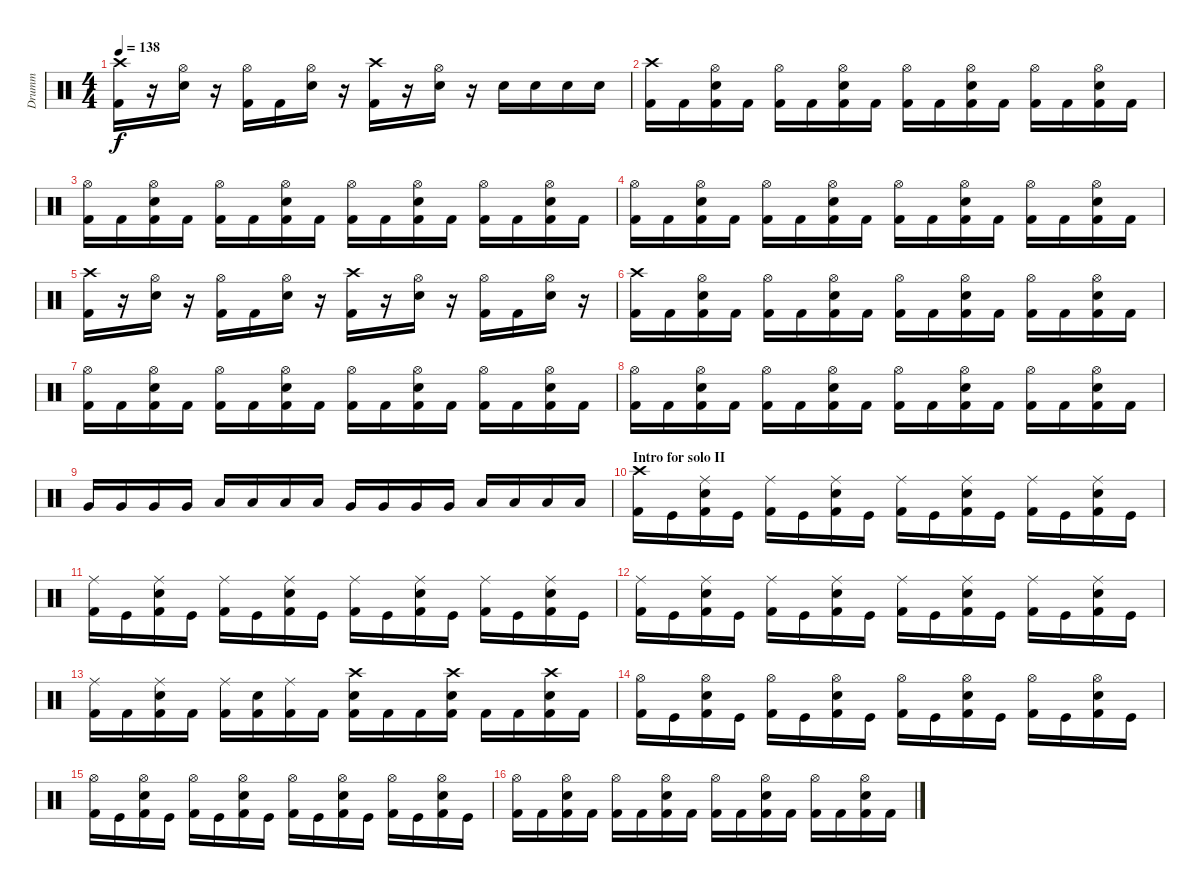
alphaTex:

\track ("Drumm" "Drumm") {instrument percussion}
\staff {score}
\articulation defaults
\ts (4 4)
\tempo 138
\clef neutral
\ks c
("Crash high (hit)" "Kick (hit) 2").16{dy f} r.16 ("Hi-Hat (open)" "Snare (hit) 2").16 r.16 ("Hi-Hat (open)" "Kick (hit) 2").16 "Kick (hit) 2".16 ("Hi-Hat (open)" "Snare (hit) 2").16 r.16 ("Crash high (hit)" "Kick (hit) 2").16 r.16 ("Hi-Hat (open)" "Snare (hit) 2").16 r.16 "Snare (hit) 2".16 "Snare (hit) 2".16 "Snare (hit) 2".16 "Snare (hit) 2".16 |
("Crash high (hit)" "Kick (hit) 2").16 "Kick (hit) 2".16 ("Hi-Hat (open)" "Snare (hit) 2" "Kick (hit) 2").16 "Kick (hit) 2".16 ("Hi-Hat (open)" "Kick (hit) 2").16 "Kick (hit) 2".16 ("Hi-Hat (open)" "Snare (hit) 2" "Kick (hit) 2").16 "Kick (hit) 2".16 ("Hi-Hat (open)" "Kick (hit) 2").16 "Kick (hit) 2".16 ("Hi-Hat (open)" "Snare (hit) 2" "Kick (hit) 2").16 "Kick (hit) 2".16 ("Hi-Hat (open)" "Kick (hit) 2").16 "Kick (hit) 2".16 ("Hi-Hat (open)" "Snare (hit) 2" "Kick (hit) 2").16 "Kick (hit) 2".16 |
("Hi-Hat (open)" "Kick (hit) 2").16 "Kick (hit) 2".16 ("Hi-Hat (open)" "Snare (hit) 2" "Kick (hit) 2").16 "Kick (hit) 2".16 ("Hi-Hat (open)" "Kick (hit) 2").16 "Kick (hit) 2".16 ("Hi-Hat (open)" "Snare (hit) 2" "Kick (hit) 2").16 "Kick (hit) 2".16 ("Hi-Hat (open)" "Kick (hit) 2").16 "Kick (hit) 2".16 ("Hi-Hat (open)" "Snare (hit) 2" "Kick (hit) 2").16 "Kick (hit) 2".16 ("Hi-Hat (open)" "Kick (hit) 2").16 "Kick (hit) 2".16 ("Hi-Hat (open)" "Snare (hit) 2" "Kick (hit) 2").16 "Kick (hit) 2".16 |
("Hi-Hat (open)" "Kick (hit) 2").16 "Kick (hit) 2".16 ("Hi-Hat (open)" "Snare (hit) 2" "Kick (hit) 2").16 "Kick (hit) 2".16 ("Hi-Hat (open)" "Kick (hit) 2").16 "Kick (hit) 2".16 ("Hi-Hat (open)" "Snare (hit) 2" "Kick (hit) 2").16 "Kick (hit) 2".16 ("Hi-Hat (open)" "Kick (hit) 2").16 "Kick (hit) 2".16 ("Hi-Hat (open)" "Snare (hit) 2" "Kick (hit) 2").16 "Kick (hit) 2".16 ("Hi-Hat (open)" "Kick (hit) 2").16 "Kick (hit) 2".16 ("Hi-Hat (open)" "Snare (hit) 2" "Kick (hit) 2").16 "Kick (hit) 2".16 |
("Crash high (hit)" "Kick (hit) 2").16 r.16 ("Hi-Hat (open)" "Snare (hit) 2").16 r.16 ("Hi-Hat (open)" "Kick (hit) 2").16 "Kick (hit) 2".16 ("Hi-Hat (open)" "Snare (hit) 2").16 r.16 ("Crash high (hit)" "Kick (hit) 2").16 r.16 ("Hi-Hat (open)" "Snare (hit) 2").16 r.16 ("Hi-Hat (open)" "Kick (hit) 2").16 "Kick (hit) 2".16 ("Hi-Hat (open)" "Snare (hit) 2").16 r.16 |
("Crash high (hit)" "Kick (hit) 2").16 "Kick (hit) 2".16 ("Hi-Hat (open)" "Snare (hit) 2" "Kick (hit) 2").16 "Kick (hit) 2".16 ("Hi-Hat (open)" "Kick (hit) 2").16 "Kick (hit) 2".16 ("Hi-Hat (open)" "Snare (hit) 2" "Kick (hit) 2").16 "Kick (hit) 2".16 ("Hi-Hat (open)" "Kick (hit) 2").16 "Kick (hit) 2".16 ("Hi-Hat (open)" "Snare (hit) 2" "Kick (hit) 2").16 "Kick (hit) 2".16 ("Hi-Hat (open)" "Kick (hit) 2").16 "Kick (hit) 2".16 ("Hi-Hat (open)" "Snare (hit) 2" "Kick (hit) 2").16 "Kick (hit) 2".16 |
("Hi-Hat (open)" "Kick (hit) 2").16 "Kick (hit) 2".16 ("Hi-Hat (open)" "Snare (hit) 2" "Kick (hit) 2").16 "Kick (hit) 2".16 ("Hi-Hat (open)" "Kick (hit) 2").16 "Kick (hit) 2".16 ("Hi-Hat (open)" "Snare (hit) 2" "Kick (hit) 2").16 "Kick (hit) 2".16 ("Hi-Hat (open)" "Kick (hit) 2").16 "Kick (hit) 2".16 ("Hi-Hat (open)" "Snare (hit) 2" "Kick (hit) 2").16 "Kick (hit) 2".16 ("Hi-Hat (open)" "Kick (hit) 2").16 "Kick (hit) 2".16 ("Hi-Hat (open)" "Snare (hit) 2" "Kick (hit) 2").16 "Kick (hit) 2".16 |
("Hi-Hat (open)" "Kick (hit) 2").16 "Kick (hit) 2".16 ("Hi-Hat (open)" "Snare (hit) 2" "Kick (hit) 2").16 "Kick (hit) 2".16 ("Hi-Hat (open)" "Kick (hit) 2").16 "Kick (hit) 2".16 ("Hi-Hat (open)" "Snare (hit) 2" "Kick (hit) 2").16 "Kick (hit) 2".16 ("Hi-Hat (open)" "Kick (hit) 2").16 "Kick (hit) 2".16 ("Hi-Hat (open)" "Snare (hit) 2" "Kick (hit) 2").16 "Kick (hit) 2".16 ("Hi-Hat (open)" "Kick (hit) 2").16 "Kick (hit) 2".16 ("Hi-Hat (open)" "Snare (hit) 2" "Kick (hit) 2").16 "Kick (hit) 2".16 |
"Very Low Tom (hit)".16 "Very Low Tom (hit)".16 "Very Low Tom (hit)".16 "Very Low Tom (hit)".16 "Low Tom (hit)".16 "Low Tom (hit)".16 "Low Tom (hit)".16 "Low Tom (hit)".16 "Very Low Tom (hit)".16 "Very Low Tom (hit)".16 "Very Low Tom (hit)".16 "Very Low Tom (hit)".16 "Low Floor Tom (hit)".16 "Low Floor Tom (hit)".16 "Low Floor Tom (hit)".16 "Low Floor Tom (hit)".16 |
\section ("" "Intro for solo II")
("Crash high (hit)" "Kick (hit) 2").16 "Kick (hit)".16 ("Ride (middle)" "Snare (hit) 2" "Kick (hit) 2").16 "Kick (hit)".16 ("Ride (middle)" "Kick (hit) 2").16 "Kick (hit)".16 ("Ride (middle)" "Snare (hit) 2" "Kick (hit) 2").16 "Kick (hit)".16 ("Ride (middle)" "Kick (hit) 2").16 "Kick (hit)".16 ("Ride (middle)" "Snare (hit) 2" "Kick (hit) 2").16 "Kick (hit)".16 ("Ride (middle)" "Kick (hit) 2").16 "Kick (hit)".16 ("Ride (middle)" "Snare (hit) 2" "Kick (hit) 2").16 "Kick (hit)".16 |
("Ride (middle)" "Kick (hit) 2").16 "Kick (hit)".16 ("Ride (middle)" "Snare (hit) 2" "Kick (hit) 2").16 "Kick (hit)".16 ("Ride (middle)" "Kick (hit) 2").16 "Kick (hit)".16 ("Ride (middle)" "Snare (hit) 2" "Kick (hit) 2").16 "Kick (hit)".16 ("Ride (middle)" "Kick (hit) 2").16 "Kick (hit)".16 ("Ride (middle)" "Snare (hit) 2" "Kick (hit) 2").16 "Kick (hit)".16 ("Ride (middle)" "Kick (hit) 2").16 "Kick (hit)".16 ("Ride (middle)" "Snare (hit) 2" "Kick (hit) 2").16 "Kick (hit)".16 |
("Ride (middle)" "Kick (hit) 2").16 "Kick (hit)".16 ("Ride (middle)" "Snare (hit) 2" "Kick (hit) 2").16 "Kick (hit)".16 ("Ride (middle)" "Kick (hit) 2").16 "Kick (hit)".16 ("Ride (middle)" "Snare (hit) 2" "Kick (hit) 2").16 "Kick (hit)".16 ("Ride (middle)" "Kick (hit) 2").16 "Kick (hit)".16 ("Ride (middle)" "Snare (hit) 2" "Kick (hit) 2").16 "Kick (hit)".16 ("Ride (middle)" "Kick (hit) 2").16 "Kick (hit)".16 ("Ride (middle)" "Snare (hit) 2" "Kick (hit) 2").16 "Kick (hit)".16 |
("Ride (middle)" "Kick (hit) 2").16 "Kick (hit) 2".16 ("Ride (middle)" "Snare (hit) 2" "Kick (hit) 2").16 "Kick (hit) 2".16 ("Ride (middle)" "Kick (hit) 2").16 ("Snare (hit) 2" "Kick (hit) 2").16 ("Ride (middle)" "Kick (hit) 2").16 "Kick (hit) 2".16 ("Crash high (hit)" "Snare (hit) 2" "Kick (hit) 2").16 "Kick (hit) 2".16 "Kick (hit) 2".16 ("Crash high (hit)" "Snare (hit) 2" "Kick (hit) 2").16 "Kick (hit) 2".16 "Kick (hit) 2".16 ("Crash high (hit)" "Snare (hit) 2" "Kick (hit) 2").16 "Kick (hit) 2".16 |
("Hi-Hat (open)" "Kick (hit) 2").16 "Kick (hit)".16 ("Hi-Hat (open)" "Snare (hit) 2" "Kick (hit) 2").16 "Kick (hit)".16 ("Hi-Hat (open)" "Kick (hit) 2").16 "Kick (hit)".16 ("Hi-Hat (open)" "Snare (hit) 2" "Kick (hit) 2").16 "Kick (hit)".16 ("Hi-Hat (open)" "Kick (hit) 2").16 "Kick (hit)".16 ("Hi-Hat (open)" "Snare (hit) 2" "Kick (hit) 2").16 "Kick (hit)".16 ("Hi-Hat (open)" "Kick (hit) 2").16 "Kick (hit)".16 ("Hi-Hat (open)" "Snare (hit) 2" "Kick (hit) 2").16 "Kick (hit)".16 |
("Hi-Hat (open)" "Kick (hit) 2").16 "Kick (hit)".16 ("Hi-Hat (open)" "Snare (hit) 2" "Kick (hit) 2").16 "Kick (hit)".16 ("Hi-Hat (open)" "Kick (hit) 2").16 "Kick (hit)".16 ("Hi-Hat (open)" "Snare (hit) 2" "Kick (hit) 2").16 "Kick (hit)".16 ("Hi-Hat (open)" "Kick (hit) 2").16 "Kick (hit)".16 ("Hi-Hat (open)" "Snare (hit) 2" "Kick (hit) 2").16 "Kick (hit)".16 ("Hi-Hat (open)" "Kick (hit) 2").16 "Kick (hit)".16 ("Hi-Hat (open)" "Snare (hit) 2" "Kick (hit) 2").16 "Kick (hit)".16 |
("Hi-Hat (open)" "Kick (hit) 2").16 "Kick (hit) 2".16 ("Hi-Hat (open)" "Snare (hit) 2" "Kick (hit) 2").16 "Kick (hit) 2".16 ("Hi-Hat (open)" "Kick (hit) 2").16 "Kick (hit) 2".16 ("Hi-Hat (open)" "Snare (hit) 2" "Kick (hit) 2").16 "Kick (hit) 2".16 ("Hi-Hat (open)" "Kick (hit) 2").16 "Kick (hit) 2".16 ("Hi-Hat (open)" "Snare (hit) 2" "Kick (hit) 2").16 "Kick (hit) 2".16 ("Hi-Hat (open)" "Kick (hit) 2").16 "Kick (hit) 2".16 ("Hi-Hat (open)" "Snare (hit) 2" "Kick (hit) 2").16 "Kick (hit) 2".16
